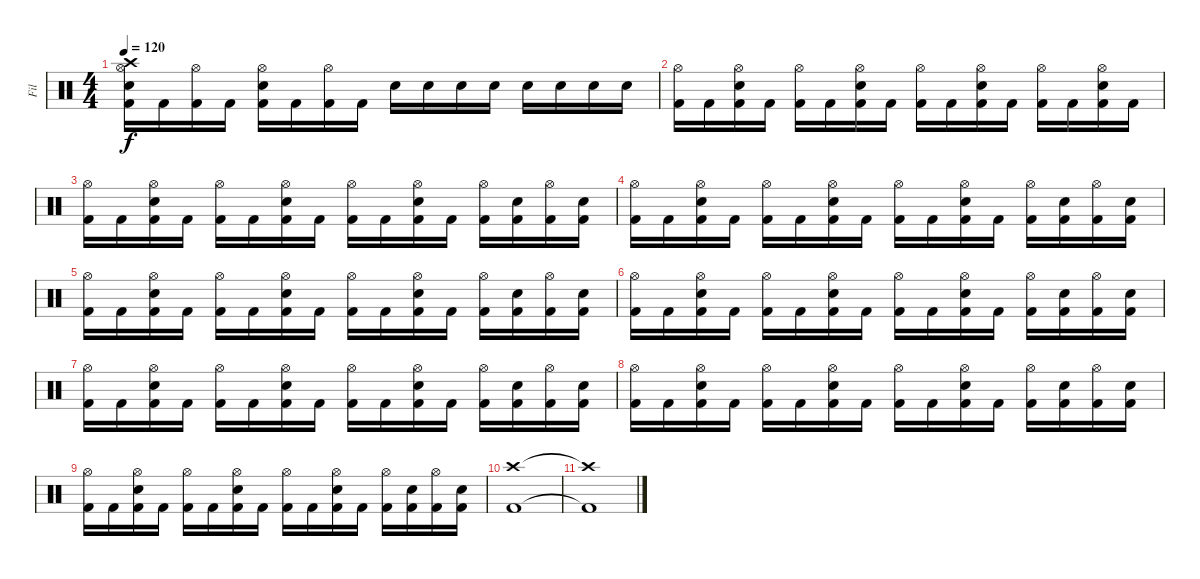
\track ("Fil" "Fil") {instrument percussion}
\staff {score}
\articulation defaults
\ts (4 4)
\tempo 120
\clef neutral
\ks c
("Kick (hit) 2" "Snare (hit) 2" "Hi-Hat (open)" "Crash high (hit)").16{dy f} "Kick (hit) 2".16 ("Kick (hit) 2" "Hi-Hat (open)").16 "Kick (hit) 2".16 ("Kick (hit) 2" "Snare (hit) 2" "Hi-Hat (open)").16 "Kick (hit) 2".16 ("Kick (hit) 2" "Hi-Hat (open)").16 "Kick (hit) 2".16 "Snare (hit) 2".16 "Snare (hit) 2".16 "Snare (hit) 2".16 "Snare (hit) 2".16 "Snare (hit) 2".16 "Snare (hit) 2".16 "Snare (hit) 2".16 "Snare (hit) 2".16 |
("Kick (hit) 2" "Hi-Hat (open)").16 "Kick (hit) 2".16 ("Kick (hit) 2" "Snare (hit) 2" "Hi-Hat (open)").16 "Kick (hit) 2".16 ("Kick (hit) 2" "Hi-Hat (open)").16 "Kick (hit) 2".16 ("Kick (hit) 2" "Snare (hit) 2" "Hi-Hat (open)").16 "Kick (hit) 2".16 ("Kick (hit) 2" "Hi-Hat (open)").16 "Kick (hit) 2".16 ("Kick (hit) 2" "Snare (hit) 2" "Hi-Hat (open)").16 "Kick (hit) 2".16 ("Kick (hit) 2" "Hi-Hat (open)").16 "Kick (hit) 2".16 ("Kick (hit) 2" "Snare (hit) 2" "Hi-Hat (open)").16 "Kick (hit) 2".16 |
("Kick (hit) 2" "Hi-Hat (open)").16 "Kick (hit) 2".16 ("Kick (hit) 2" "Snare (hit) 2" "Hi-Hat (open)").16 "Kick (hit) 2".16 ("Kick (hit) 2" "Hi-Hat (open)").16 "Kick (hit) 2".16 ("Kick (hit) 2" "Snare (hit) 2" "Hi-Hat (open)").16 "Kick (hit) 2".16 ("Kick (hit) 2" "Hi-Hat (open)").16 "Kick (hit) 2".16 ("Kick (hit) 2" "Snare (hit) 2" "Hi-Hat (open)").16 "Kick (hit) 2".16 ("Kick (hit) 2" "Hi-Hat (open)").16 ("Kick (hit) 2" "Snare (hit) 2").16 ("Kick (hit) 2" "Hi-Hat (open)").16 ("Kick (hit) 2" "Snare (hit) 2").16 |
("Kick (hit) 2" "Hi-Hat (open)").16 "Kick (hit) 2".16 ("Kick (hit) 2" "Snare (hit) 2" "Hi-Hat (open)").16 "Kick (hit) 2".16 ("Kick (hit) 2" "Hi-Hat (open)").16 "Kick (hit) 2".16 ("Kick (hit) 2" "Snare (hit) 2" "Hi-Hat (open)").16 "Kick (hit) 2".16 ("Kick (hit) 2" "Hi-Hat (open)").16 "Kick (hit) 2".16 ("Kick (hit) 2" "Snare (hit) 2" "Hi-Hat (open)").16 "Kick (hit) 2".16 ("Kick (hit) 2" "Hi-Hat (open)").16 ("Kick (hit) 2" "Snare (hit) 2").16 ("Kick (hit) 2" "Hi-Hat (open)").16 ("Kick (hit) 2" "Snare (hit) 2").16 |
("Kick (hit) 2" "Hi-Hat (open)").16 "Kick (hit) 2".16 ("Kick (hit) 2" "Snare (hit) 2" "Hi-Hat (open)").16 "Kick (hit) 2".16 ("Kick (hit) 2" "Hi-Hat (open)").16 "Kick (hit) 2".16 ("Kick (hit) 2" "Snare (hit) 2" "Hi-Hat (open)").16 "Kick (hit) 2".16 ("Kick (hit) 2" "Hi-Hat (open)").16 "Kick (hit) 2".16 ("Kick (hit) 2" "Snare (hit) 2" "Hi-Hat (open)").16 "Kick (hit) 2".16 ("Kick (hit) 2" "Hi-Hat (open)").16 ("Kick (hit) 2" "Snare (hit) 2").16 ("Kick (hit) 2" "Hi-Hat (open)").16 ("Kick (hit) 2" "Snare (hit) 2").16 |
("Kick (hit) 2" "Hi-Hat (open)").16 "Kick (hit) 2".16 ("Kick (hit) 2" "Snare (hit) 2" "Hi-Hat (open)").16 "Kick (hit) 2".16 ("Kick (hit) 2" "Hi-Hat (open)").16 "Kick (hit) 2".16 ("Kick (hit) 2" "Snare (hit) 2" "Hi-Hat (open)").16 "Kick (hit) 2".16 ("Kick (hit) 2" "Hi-Hat (open)").16 "Kick (hit) 2".16 ("Kick (hit) 2" "Snare (hit) 2" "Hi-Hat (open)").16 "Kick (hit) 2".16 ("Kick (hit) 2" "Hi-Hat (open)").16 ("Kick (hit) 2" "Snare (hit) 2").16 ("Kick (hit) 2" "Hi-Hat (open)").16 ("Kick (hit) 2" "Snare (hit) 2").16 |
("Kick (hit) 2" "Hi-Hat (open)").16 "Kick (hit) 2".16 ("Kick (hit) 2" "Snare (hit) 2" "Hi-Hat (open)").16 "Kick (hit) 2".16 ("Kick (hit) 2" "Hi-Hat (open)").16 "Kick (hit) 2".16 ("Kick (hit) 2" "Snare (hit) 2" "Hi-Hat (open)").16 "Kick (hit) 2".16 ("Kick (hit) 2" "Hi-Hat (open)").16 "Kick (hit) 2".16 ("Kick (hit) 2" "Snare (hit) 2" "Hi-Hat (open)").16 "Kick (hit) 2".16 ("Kick (hit) 2" "Hi-Hat (open)").16 ("Kick (hit) 2" "Snare (hit) 2").16 ("Kick (hit) 2" "Hi-Hat (open)").16 ("Kick (hit) 2" "Snare (hit) 2").16 |
("Kick (hit) 2" "Hi-Hat (open)").16 "Kick (hit) 2".16 ("Kick (hit) 2" "Snare (hit) 2" "Hi-Hat (open)").16 "Kick (hit) 2".16 ("Kick (hit) 2" "Hi-Hat (open)").16 "Kick (hit) 2".16 ("Kick (hit) 2" "Snare (hit) 2" "Hi-Hat (open)").16 "Kick (hit) 2".16 ("Kick (hit) 2" "Hi-Hat (open)").16 "Kick (hit) 2".16 ("Kick (hit) 2" "Snare (hit) 2" "Hi-Hat (open)").16 "Kick (hit) 2".16 ("Kick (hit) 2" "Hi-Hat (open)").16 ("Kick (hit) 2" "Snare (hit) 2").16 ("Kick (hit) 2" "Hi-Hat (open)").16 ("Kick (hit) 2" "Snare (hit) 2").16 |
("Kick (hit) 2" "Hi-Hat (open)").16 "Kick (hit) 2".16 ("Kick (hit) 2" "Snare (hit) 2" "Hi-Hat (open)").16 "Kick (hit) 2".16 ("Kick (hit) 2" "Hi-Hat (open)").16 "Kick (hit) 2".16 ("Kick (hit) 2" "Snare (hit) 2" "Hi-Hat (open)").16 "Kick (hit) 2".16 ("Kick (hit) 2" "Hi-Hat (open)").16 "Kick (hit) 2".16 ("Kick (hit) 2" "Snare (hit) 2" "Hi-Hat (open)").16 "Kick (hit) 2".16 ("Kick (hit) 2" "Hi-Hat (open)").16 ("Kick (hit) 2" "Snare (hit) 2").16 ("Kick (hit) 2" "Hi-Hat (open)").16 ("Kick (hit) 2" "Snare (hit) 2").16 |
("Kick (hit) 2" "Crash high (hit)").1 |
("Kick (hit) 2"{t} "Crash high (hit)"{t}).1
